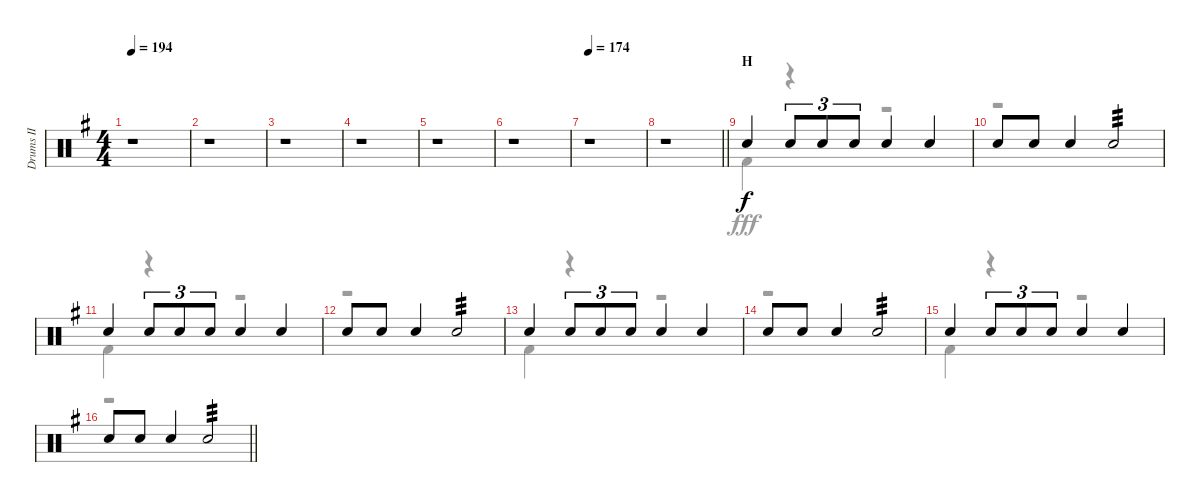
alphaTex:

\track ("Drums II" "Drums II") {instrument percussion}
\staff {score}
\articulation defaults
\voice
\ts (4 4)
\tempo 194
\clef neutral
\ks g
r.1{dy mp} |
r.1 |
r.1 |
r.1 |
r.1 |
r.1 |
\tempo 174
r.1 |
\barLineRight lightlight
r.1 |
\section ("" "H")
"Electric Snare (hit)".4{dy f} "Electric Snare (hit)".8{tu (3 2)} "Electric Snare (hit)".8{tu (3 2)} "Electric Snare (hit)".8{tu (3 2)} "Electric Snare (hit)".4 "Electric Snare (hit)".4 |
"Electric Snare (hit)".8 "Electric Snare (hit)".8 "Electric Snare (hit)".4 "Electric Snare (hit)".2{tp 3} |
"Electric Snare (hit)".4 "Electric Snare (hit)".8{tu (3 2)} "Electric Snare (hit)".8{tu (3 2)} "Electric Snare (hit)".8{tu (3 2)} "Electric Snare (hit)".4 "Electric Snare (hit)".4 |
"Electric Snare (hit)".8 "Electric Snare (hit)".8 "Electric Snare (hit)".4 "Electric Snare (hit)".2{tp 3} |
"Electric Snare (hit)".4 "Electric Snare (hit)".8{tu (3 2)} "Electric Snare (hit)".8{tu (3 2)} "Electric Snare (hit)".8{tu (3 2)} "Electric Snare (hit)".4 "Electric Snare (hit)".4 |
"Electric Snare (hit)".8 "Electric Snare (hit)".8 "Electric Snare (hit)".4 "Electric Snare (hit)".2{tp 3} |
"Electric Snare (hit)".4 "Electric Snare (hit)".8{tu (3 2)} "Electric Snare (hit)".8{tu (3 2)} "Electric Snare (hit)".8{tu (3 2)} "Electric Snare (hit)".4 "Electric Snare (hit)".4 |
\barLineRight lightlight "Electric Snare (hit)".8 "Electric Snare (hit)".8 "Electric Snare (hit)".4 "Electric Snare (hit)".2{tp 3}
\voice
\clef neutral
\ottava regular
\simile none
\ks g
r.1{dy f} |
r.1 |
r.1 |
r.1 |
r.1 |
r.1 |
r.1 |
\barLineRight lightlight
r.1 |
"Kick (hit) 2".4{dy fff} r.4 r.2 |
r.1 |
"Kick (hit) 2".4 r.4 r.2 |
r.1 |
"Kick (hit) 2".4 r.4 r.2 |
r.1 |
"Kick (hit) 2".4 r.4 r.2 |
\barLineRight lightlight
r.1
